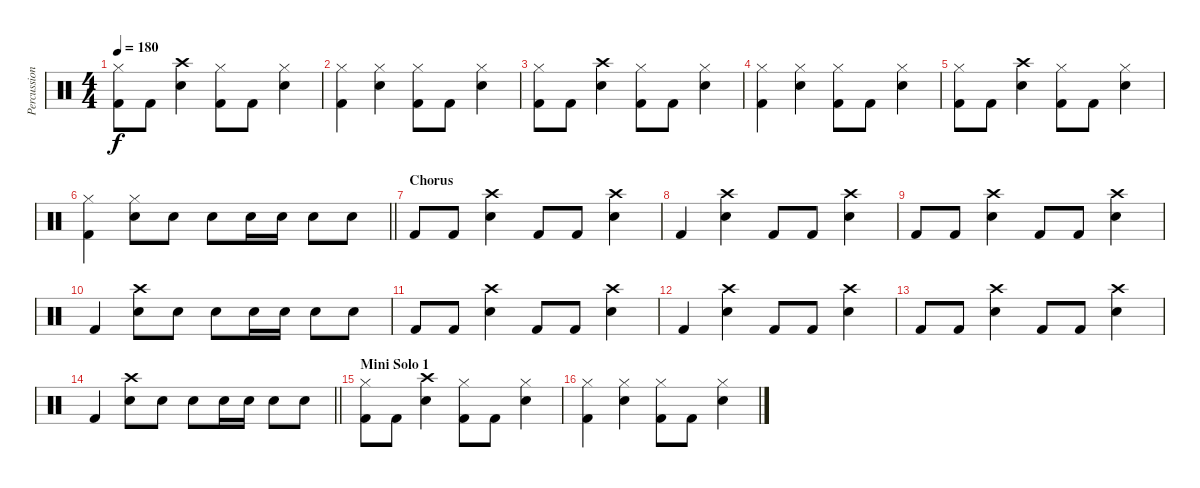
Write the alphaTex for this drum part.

\track ("Percussion" "Percussion") {instrument percussion}
\staff {score}
\articulation defaults
\ts (4 4)
\tempo 180
\clef neutral
\ks c
("Hi-Hat (closed)" "Kick (hit) 2").8{dy f} "Kick (hit) 2".8 ("Crash high (hit)" "Snare (hit) 2").4 ("Hi-Hat (closed)" "Kick (hit) 2").8 "Kick (hit) 2".8 ("Hi-Hat (closed)" "Snare (hit) 2").4 |
("Hi-Hat (closed)" "Kick (hit) 2").4 ("Hi-Hat (closed)" "Snare (hit) 2").4 ("Hi-Hat (closed)" "Kick (hit) 2").8 "Kick (hit) 2".8 ("Hi-Hat (closed)" "Snare (hit) 2").4 |
("Hi-Hat (closed)" "Kick (hit) 2").8 "Kick (hit) 2".8 ("Crash high (hit)" "Snare (hit) 2").4 ("Hi-Hat (closed)" "Kick (hit) 2").8 "Kick (hit) 2".8 ("Hi-Hat (closed)" "Snare (hit) 2").4 |
("Hi-Hat (closed)" "Kick (hit) 2").4 ("Hi-Hat (closed)" "Snare (hit) 2").4 ("Hi-Hat (closed)" "Kick (hit) 2").8 "Kick (hit) 2".8 ("Hi-Hat (closed)" "Snare (hit) 2").4 |
("Hi-Hat (closed)" "Kick (hit) 2").8 "Kick (hit) 2".8 ("Crash high (hit)" "Snare (hit) 2").4 ("Hi-Hat (closed)" "Kick (hit) 2").8 "Kick (hit) 2".8 ("Hi-Hat (closed)" "Snare (hit) 2").4 |
\barLineRight lightlight
("Hi-Hat (closed)" "Kick (hit) 2").4 ("Hi-Hat (closed)" "Snare (hit) 2").8 "Snare (hit) 2".8 "Snare (hit) 2".8 "Snare (hit) 2".16 "Snare (hit) 2".16 "Snare (hit) 2".8 "Snare (hit) 2".8 |
\section ("" "Chorus")
"Kick (hit) 2".8 "Kick (hit) 2".8 ("Crash high (hit)" "Snare (hit) 2").4 "Kick (hit) 2".8 "Kick (hit) 2".8 ("Crash high (hit)" "Snare (hit) 2").4 |
"Kick (hit) 2".4 ("Crash high (hit)" "Snare (hit) 2").4 "Kick (hit) 2".8 "Kick (hit) 2".8 ("Crash high (hit)" "Snare (hit) 2").4 |
"Kick (hit) 2".8 "Kick (hit) 2".8 ("Crash high (hit)" "Snare (hit) 2").4 "Kick (hit) 2".8 "Kick (hit) 2".8 ("Crash high (hit)" "Snare (hit) 2").4 |
"Kick (hit) 2".4 ("Crash high (hit)" "Snare (hit) 2").8 "Snare (hit) 2".8 "Snare (hit) 2".8 "Snare (hit) 2".16 "Snare (hit) 2".16 "Snare (hit) 2".8 "Snare (hit) 2".8 |
"Kick (hit) 2".8 "Kick (hit) 2".8 ("Crash high (hit)" "Snare (hit) 2").4 "Kick (hit) 2".8 "Kick (hit) 2".8 ("Crash high (hit)" "Snare (hit) 2").4 |
"Kick (hit) 2".4 ("Crash high (hit)" "Snare (hit) 2").4 "Kick (hit) 2".8 "Kick (hit) 2".8 ("Crash high (hit)" "Snare (hit) 2").4 |
"Kick (hit) 2".8 "Kick (hit) 2".8 ("Crash high (hit)" "Snare (hit) 2").4 "Kick (hit) 2".8 "Kick (hit) 2".8 ("Crash high (hit)" "Snare (hit) 2").4 |
\barLineRight lightlight "Kick (hit) 2".4
("Crash high (hit)" "Snare (hit) 2").8 "Snare (hit) 2".8 "Snare (hit) 2".8 "Snare (hit) 2".16 "Snare (hit) 2".16 "Snare (hit) 2".8 "Snare (hit) 2".8 |
\section ("" "Mini Solo 1")
("Hi-Hat (closed)" "Kick (hit) 2").8 "Kick (hit) 2".8 ("Crash high (hit)" "Snare (hit) 2").4 ("Hi-Hat (closed)" "Kick (hit) 2").8 "Kick (hit) 2".8 ("Hi-Hat (closed)" "Snare (hit) 2").4 |
("Hi-Hat (closed)" "Kick (hit) 2").4 ("Hi-Hat (closed)" "Snare (hit) 2").4 ("Hi-Hat (closed)" "Kick (hit) 2").8 "Kick (hit) 2".8 ("Hi-Hat (closed)" "Snare (hit) 2").4
